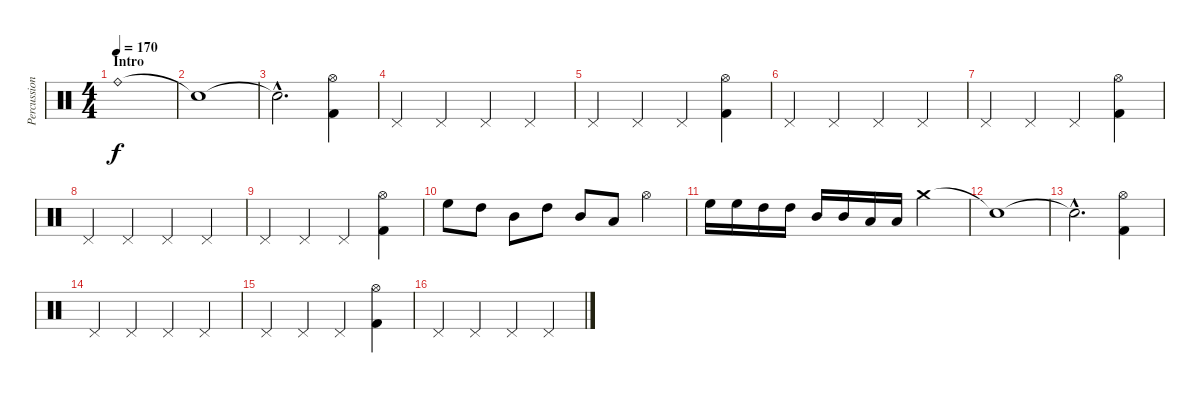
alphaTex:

\track ("Percussion" "Percussion") {instrument percussion}
\staff {score}
\articulation defaults
\ts (4 4)
\section ("" "Intro")
\tempo 170
\clef neutral
\ks c "Ride (bell)".1{dy f}
|
"Snare (hit)"{t}.1 |
"Snare (hit)"{hac t}.2{d} ("Hi-Hat (open)" "Kick (hit) 2").4 |
"Pedal Hi-Hat (hit)".4 "Pedal Hi-Hat (hit)".4 "Pedal Hi-Hat (hit)".4 "Pedal Hi-Hat (hit)".4 |
"Pedal Hi-Hat (hit)".4 "Pedal Hi-Hat (hit)".4 "Pedal Hi-Hat (hit)".4 ("Hi-Hat (open)" "Kick (hit) 2").4 |
"Pedal Hi-Hat (hit)".4 "Pedal Hi-Hat (hit)".4 "Pedal Hi-Hat (hit)".4 "Pedal Hi-Hat (hit)".4 |
"Pedal Hi-Hat (hit)".4 "Pedal Hi-Hat (hit)".4 "Pedal Hi-Hat (hit)".4 ("Hi-Hat (open)" "Kick (hit) 2").4 |
"Pedal Hi-Hat (hit)".4 "Pedal Hi-Hat (hit)".4 "Pedal Hi-Hat (hit)".4 "Pedal Hi-Hat (hit)".4 |
"Pedal Hi-Hat (hit)".4 "Pedal Hi-Hat (hit)".4 "Pedal Hi-Hat (hit)".4 ("Hi-Hat (open)" "Kick (hit) 2").4 |
"High Floor Tom (hit)".8 "High Tom (hit)".8 "Mid Tom (hit)".8 "High Tom (hit)".8 "Mid Tom (hit)".8 "Low Tom (hit)".8 "Hi-Hat (open)".4 |
"High Floor Tom (hit)".16 "High Floor Tom (hit)".16 "High Tom (hit)".16 "High Tom (hit)".16 "Mid Tom (hit)".16 "Mid Tom (hit)".16 "Low Tom (hit)".16 "Low Tom (hit)".16 "Crash medium (hit)".2 |
"Snare (hit)"{t}.1 |
"Snare (hit)"{hac t}.2{d} ("Hi-Hat (open)" "Kick (hit) 2").4 |
"Pedal Hi-Hat (hit)".4 "Pedal Hi-Hat (hit)".4 "Pedal Hi-Hat (hit)".4 "Pedal Hi-Hat (hit)".4 |
"Pedal Hi-Hat (hit)".4 "Pedal Hi-Hat (hit)".4 "Pedal Hi-Hat (hit)".4 ("Hi-Hat (open)" "Kick (hit) 2").4 |
"Pedal Hi-Hat (hit)".4 "Pedal Hi-Hat (hit)".4 "Pedal Hi-Hat (hit)".4 "Pedal Hi-Hat (hit)".4
